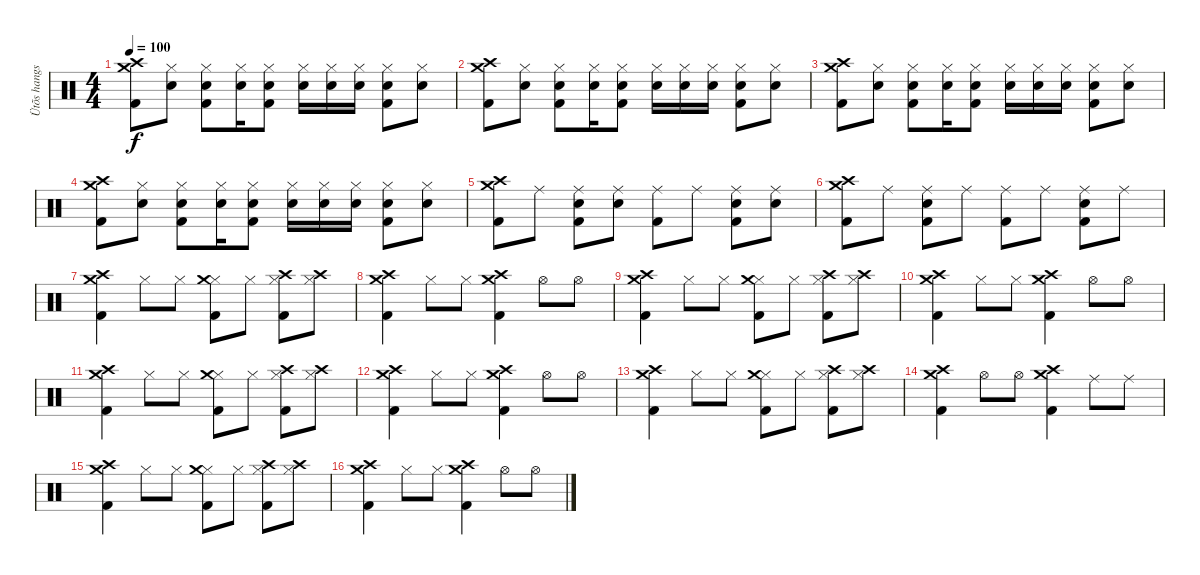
\track ("Ütõs hangszer" "Ütõs hangs") {instrument percussion}
\staff {score}
\articulation defaults
\ts (4 4)
\tempo 100
\clef neutral
\ks c
("Crash medium (hit)" "Crash high (hit)" "Kick (hit) 2").8{dy f} ("Hi-Hat (closed)" "Snare (hit) 2").8 ("Hi-Hat (closed)" "Snare (hit) 2" "Kick (hit) 2").8 ("Hi-Hat (closed)" "Snare (hit) 2").16 ("Hi-Hat (closed)" "Snare (hit) 2" "Kick (hit) 2").8 ("Hi-Hat (closed)" "Snare (hit) 2").16 ("Hi-Hat (closed)" "Snare (hit) 2").16 ("Hi-Hat (closed)" "Snare (hit) 2").16 ("Hi-Hat (closed)" "Snare (hit) 2" "Kick (hit) 2").8 ("Hi-Hat (closed)" "Snare (hit) 2").8 |
("Crash medium (hit)" "Crash high (hit)" "Kick (hit) 2").8 ("Hi-Hat (closed)" "Snare (hit) 2").8 ("Hi-Hat (closed)" "Snare (hit) 2" "Kick (hit) 2").8 ("Hi-Hat (closed)" "Snare (hit) 2").16 ("Hi-Hat (closed)" "Snare (hit) 2" "Kick (hit) 2").8 ("Hi-Hat (closed)" "Snare (hit) 2").16 ("Hi-Hat (closed)" "Snare (hit) 2").16 ("Hi-Hat (closed)" "Snare (hit) 2").16 ("Hi-Hat (closed)" "Snare (hit) 2" "Kick (hit) 2").8 ("Hi-Hat (closed)" "Snare (hit) 2").8 |
("Crash medium (hit)" "Crash high (hit)" "Kick (hit) 2").8 ("Hi-Hat (closed)" "Snare (hit) 2").8 ("Hi-Hat (closed)" "Snare (hit) 2" "Kick (hit) 2").8 ("Hi-Hat (closed)" "Snare (hit) 2").16 ("Hi-Hat (closed)" "Snare (hit) 2" "Kick (hit) 2").8 ("Hi-Hat (closed)" "Snare (hit) 2").16 ("Hi-Hat (closed)" "Snare (hit) 2").16 ("Hi-Hat (closed)" "Snare (hit) 2").16 ("Hi-Hat (closed)" "Snare (hit) 2" "Kick (hit) 2").8 ("Hi-Hat (closed)" "Snare (hit) 2").8 |
("Crash medium (hit)" "Crash high (hit)" "Kick (hit) 2").8 ("Hi-Hat (closed)" "Snare (hit) 2").8 ("Hi-Hat (closed)" "Snare (hit) 2" "Kick (hit) 2").8 ("Hi-Hat (closed)" "Snare (hit) 2").16 ("Hi-Hat (closed)" "Snare (hit) 2" "Kick (hit) 2").8 ("Hi-Hat (closed)" "Snare (hit) 2").16 ("Hi-Hat (closed)" "Snare (hit) 2").16 ("Hi-Hat (closed)" "Snare (hit) 2").16 ("Hi-Hat (closed)" "Snare (hit) 2" "Kick (hit) 2").8 ("Hi-Hat (closed)" "Snare (hit) 2").8 |
("Crash high (hit)" "Crash medium (hit)" "Kick (hit) 2").8 "Ride (middle)".8 ("Ride (middle)" "Snare (hit) 2" "Kick (hit) 2").8 ("Ride (middle)" "Snare (hit) 2").8 ("Ride (middle)" "Kick (hit) 2").8 "Ride (middle)".8 ("Ride (middle)" "Snare (hit) 2" "Kick (hit) 2").8 ("Ride (middle)" "Snare (hit) 2").8 |
("Crash high (hit)" "Crash medium (hit)" "Kick (hit) 2").8 "Ride (middle)".8 ("Ride (middle)" "Snare (hit) 2" "Kick (hit) 2").8 "Ride (middle)".8 ("Ride (middle)" "Kick (hit) 2").8 "Ride (middle)".8 ("Ride (middle)" "Snare (hit) 2" "Kick (hit) 2").8 "Ride (middle)".8 |
("Crash high (hit)" "Crash medium (hit)" "Kick (hit) 2").4 "Hi-Hat (closed)".8 "Hi-Hat (closed)".8 ("Hi-Hat (closed)" "Crash medium (hit)" "Kick (hit) 2").8 "Hi-Hat (closed)".8 ("Hi-Hat (closed)" "Crash high (hit)" "Kick (hit) 2").8 ("Hi-Hat (closed)" "Crash high (hit)").8 |
("Crash high (hit)" "Crash medium (hit)" "Kick (hit) 2").4 "Hi-Hat (closed)".8 "Hi-Hat (closed)".8 ("Crash high (hit)" "Crash medium (hit)" "Kick (hit) 2").4 "Hi-Hat (open)".8 "Hi-Hat (open)".8 |
("Crash high (hit)" "Crash medium (hit)" "Kick (hit) 2").4 "Hi-Hat (closed)".8 "Hi-Hat (closed)".8 ("Hi-Hat (closed)" "Crash medium (hit)" "Kick (hit) 2").8 "Hi-Hat (closed)".8 ("Hi-Hat (closed)" "Crash high (hit)" "Kick (hit) 2").8 ("Hi-Hat (closed)" "Crash high (hit)").8 |
("Crash high (hit)" "Crash medium (hit)" "Kick (hit) 2").4 "Hi-Hat (closed)".8 "Hi-Hat (closed)".8 ("Crash high (hit)" "Crash medium (hit)" "Kick (hit) 2").4 "Hi-Hat (open)".8 "Hi-Hat (open)".8 |
("Crash high (hit)" "Crash medium (hit)" "Kick (hit) 2").4 "Hi-Hat (closed)".8 "Hi-Hat (closed)".8 ("Hi-Hat (closed)" "Crash medium (hit)" "Kick (hit) 2").8 "Hi-Hat (closed)".8 ("Hi-Hat (closed)" "Crash high (hit)" "Kick (hit) 2").8 ("Hi-Hat (closed)" "Crash high (hit)").8 |
("Crash high (hit)" "Crash medium (hit)" "Kick (hit) 2").4 "Hi-Hat (closed)".8 "Hi-Hat (closed)".8 ("Crash high (hit)" "Crash medium (hit)" "Kick (hit) 2").4 "Hi-Hat (open)".8 "Hi-Hat (open)".8 |
("Crash high (hit)" "Crash medium (hit)" "Kick (hit) 2").4 "Hi-Hat (closed)".8 "Hi-Hat (closed)".8 ("Hi-Hat (closed)" "Crash medium (hit)" "Kick (hit) 2").8 "Hi-Hat (closed)".8 ("Hi-Hat (closed)" "Crash high (hit)" "Kick (hit) 2").8 ("Hi-Hat (closed)" "Crash high (hit)").8 |
("Crash high (hit)" "Crash medium (hit)" "Kick (hit) 2").4 "Hi-Hat (open)".8 "Hi-Hat (open)".8 ("Crash high (hit)" "Crash medium (hit)" "Kick (hit) 2").4 "Ride (middle)".8 "Ride (middle)".8 |
("Crash high (hit)" "Crash medium (hit)" "Kick (hit) 2").4 "Hi-Hat (closed)".8 "Hi-Hat (closed)".8 ("Hi-Hat (closed)" "Crash medium (hit)" "Kick (hit) 2").8 "Hi-Hat (closed)".8 ("Hi-Hat (closed)" "Crash high (hit)" "Kick (hit) 2").8 ("Hi-Hat (closed)" "Crash high (hit)").8 |
("Crash high (hit)" "Crash medium (hit)" "Kick (hit) 2").4 "Hi-Hat (closed)".8 "Hi-Hat (closed)".8 ("Crash high (hit)" "Crash medium (hit)" "Kick (hit) 2").4 "Hi-Hat (open)".8 "Hi-Hat (open)".8
